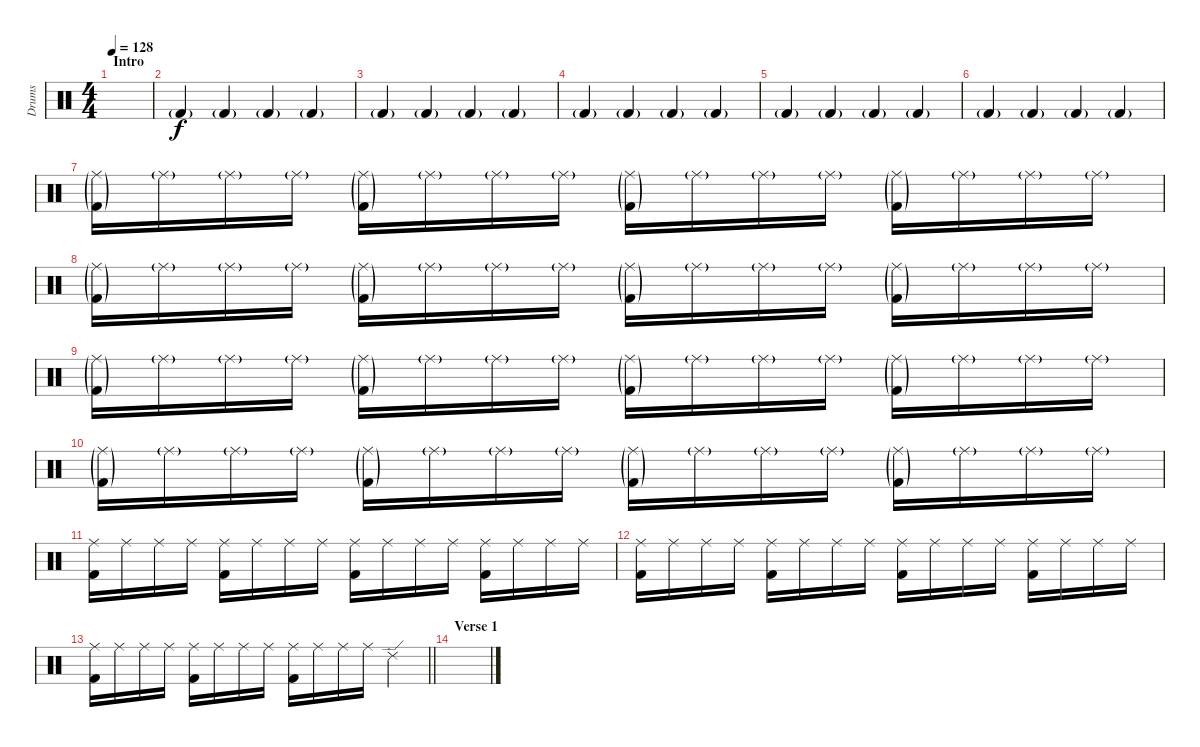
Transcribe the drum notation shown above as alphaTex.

\track ("Drums" "Drums") {instrument percussion}
\staff {score}
\articulation defaults
\ts (4 4)
\section ("" "Intro")
\tempo 128
\clef neutral
\ks c
|
"Kick (hit) 2"{g}.4 "Kick (hit) 2"{g}.4 "Kick (hit) 2"{g}.4 "Kick (hit) 2"{g}.4 |
"Kick (hit) 2"{g}.4 "Kick (hit) 2"{g}.4 "Kick (hit) 2"{g}.4 "Kick (hit) 2"{g}.4 |
"Kick (hit) 2"{g}.4 "Kick (hit) 2"{g}.4 "Kick (hit) 2"{g}.4 "Kick (hit) 2"{g}.4 |
"Kick (hit) 2"{g}.4 "Kick (hit) 2"{g}.4 "Kick (hit) 2"{g}.4 "Kick (hit) 2"{g}.4 |
"Kick (hit) 2"{g}.4 "Kick (hit) 2"{g}.4 "Kick (hit) 2"{g}.4 "Kick (hit) 2"{g}.4 |
("Ride (middle)"{g} "Kick (hit) 2"{g}).16 "Ride (middle)"{g}.16 "Ride (middle)"{g}.16 "Ride (middle)"{g}.16 ("Ride (middle)"{g} "Kick (hit) 2"{g}).16 "Ride (middle)"{g}.16 "Ride (middle)"{g}.16 "Ride (middle)"{g}.16 ("Ride (middle)"{g} "Kick (hit) 2"{g}).16 "Ride (middle)"{g}.16 "Ride (middle)"{g}.16 "Ride (middle)"{g}.16 ("Ride (middle)"{g} "Kick (hit) 2"{g}).16 "Ride (middle)"{g}.16 "Ride (middle)"{g}.16 "Ride (middle)"{g}.16 |
("Ride (middle)"{g} "Kick (hit) 2"{g}).16 "Ride (middle)"{g}.16 "Ride (middle)"{g}.16 "Ride (middle)"{g}.16 ("Ride (middle)"{g} "Kick (hit) 2"{g}).16 "Ride (middle)"{g}.16 "Ride (middle)"{g}.16 "Ride (middle)"{g}.16 ("Ride (middle)"{g} "Kick (hit) 2"{g}).16 "Ride (middle)"{g}.16 "Ride (middle)"{g}.16 "Ride (middle)"{g}.16 ("Ride (middle)"{g} "Kick (hit) 2"{g}).16 "Ride (middle)"{g}.16 "Ride (middle)"{g}.16 "Ride (middle)"{g}.16 |
("Ride (middle)"{g} "Kick (hit) 2"{g}).16 "Ride (middle)"{g}.16 "Ride (middle)"{g}.16 "Ride (middle)"{g}.16 ("Ride (middle)"{g} "Kick (hit) 2"{g}).16 "Ride (middle)"{g}.16 "Ride (middle)"{g}.16 "Ride (middle)"{g}.16 ("Ride (middle)"{g} "Kick (hit) 2"{g}).16 "Ride (middle)"{g}.16 "Ride (middle)"{g}.16 "Ride (middle)"{g}.16 ("Ride (middle)"{g} "Kick (hit) 2"{g}).16 "Ride (middle)"{g}.16 "Ride (middle)"{g}.16 "Ride (middle)"{g}.16 |
("Ride (middle)"{g} "Kick (hit) 2"{g}).16 "Ride (middle)"{g}.16 "Ride (middle)"{g}.16 "Ride (middle)"{g}.16 ("Ride (middle)"{g} "Kick (hit) 2"{g}).16 "Ride (middle)"{g}.16 "Ride (middle)"{g}.16 "Ride (middle)"{g}.16 ("Ride (middle)"{g} "Kick (hit) 2"{g}).16 "Ride (middle)"{g}.16 "Ride (middle)"{g}.16 "Ride (middle)"{g}.16 ("Ride (middle)"{g} "Kick (hit) 2"{g}).16 "Ride (middle)"{g}.16 "Ride (middle)"{g}.16 "Ride (middle)"{g}.16 |
("Ride (middle)" "Kick (hit) 2").16{dy f} "Ride (middle)".16 "Ride (middle)".16 "Ride (middle)".16 ("Ride (middle)" "Kick (hit) 2").16 "Ride (middle)".16 "Ride (middle)".16 "Ride (middle)".16 ("Ride (middle)" "Kick (hit) 2").16 "Ride (middle)".16 "Ride (middle)".16 "Ride (middle)".16 ("Ride (middle)" "Kick (hit) 2").16 "Ride (middle)".16 "Ride (middle)".16 "Ride (middle)".16 |
("Ride (middle)" "Kick (hit) 2").16 "Ride (middle)".16 "Ride (middle)".16 "Ride (middle)".16 ("Ride (middle)" "Kick (hit) 2").16 "Ride (middle)".16 "Ride (middle)".16 "Ride (middle)".16 ("Ride (middle)" "Kick (hit) 2").16 "Ride (middle)".16 "Ride (middle)".16 "Ride (middle)".16 ("Ride (middle)" "Kick (hit) 2").16 "Ride (middle)".16 "Ride (middle)".16 "Ride (middle)".16 |
\barLineRight lightlight
("Ride (middle)" "Kick (hit) 2").16 "Ride (middle)".16 "Ride (middle)".16 "Ride (middle)".16 ("Ride (middle)" "Kick (hit) 2").16 "Ride (middle)".16 "Ride (middle)".16 "Ride (middle)".16 ("Ride (middle)" "Kick (hit) 2").16 "Ride (middle)".16 "Ride (middle)".16 "Ride (middle)".16 "Ride (edge) 2".4 |
\section ("" "Verse 1")
